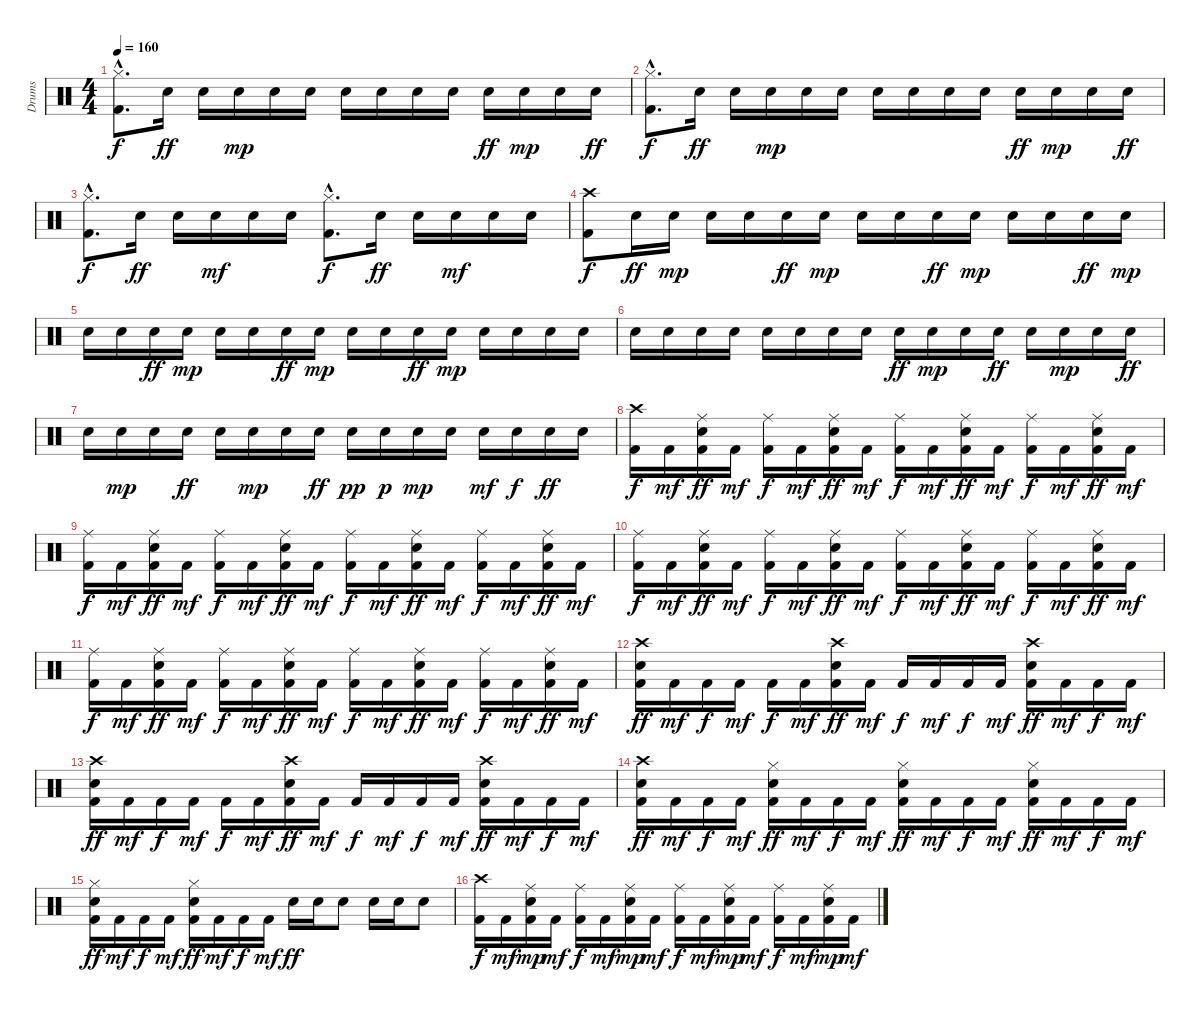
\track ("Drums" "Drums") {instrument percussion}
\staff {score}
\articulation defaults
\ts (4 4)
\tempo 160
\clef neutral
\ks c
("Hi-Hat (closed)"{hac} "Kick (hit) 2"{hac}).8{d dy f} "Snare (hit) 2".16{dy ff} "Snare (hit) 2".16 "Snare (hit) 2".16{dy mp} "Snare (hit) 2".16 "Snare (hit) 2".16 "Snare (hit) 2".16 "Snare (hit) 2".16 "Snare (hit) 2".16 "Snare (hit) 2".16 "Snare (hit) 2".16{dy ff} "Snare (hit) 2".16{dy mp} "Snare (hit) 2".16 "Snare (hit) 2".16{dy ff} |
("Hi-Hat (closed)"{hac} "Kick (hit) 2"{hac}).8{d dy f} "Snare (hit) 2".16{dy ff} "Snare (hit) 2".16 "Snare (hit) 2".16{dy mp} "Snare (hit) 2".16 "Snare (hit) 2".16 "Snare (hit) 2".16 "Snare (hit) 2".16 "Snare (hit) 2".16 "Snare (hit) 2".16 "Snare (hit) 2".16{dy ff} "Snare (hit) 2".16{dy mp} "Snare (hit) 2".16 "Snare (hit) 2".16{dy ff} |
("Hi-Hat (closed)"{hac} "Kick (hit) 2"{hac}).8{d dy f} "Snare (hit) 2".16{dy ff} "Snare (hit) 2".16 "Snare (hit) 2".16{dy mf} "Snare (hit) 2".16 "Snare (hit) 2".16 ("Hi-Hat (closed)"{hac} "Kick (hit) 2"{hac}).8{d dy f} "Snare (hit) 2".16{dy ff} "Snare (hit) 2".16 "Snare (hit) 2".16{dy mf} "Snare (hit) 2".16 "Snare (hit) 2".16 |
("Crash high (hit)" "Kick (hit) 2").8{dy f} "Snare (hit) 2".16{dy ff} "Snare (hit) 2".16{dy mp} "Snare (hit) 2".16 "Snare (hit) 2".16 "Snare (hit) 2".16{dy ff} "Snare (hit) 2".16{dy mp} "Snare (hit) 2".16 "Snare (hit) 2".16 "Snare (hit) 2".16{dy ff} "Snare (hit) 2".16{dy mp} "Snare (hit) 2".16 "Snare (hit) 2".16 "Snare (hit) 2".16{dy ff} "Snare (hit) 2".16{dy mp} |
"Snare (hit) 2".16 "Snare (hit) 2".16 "Snare (hit) 2".16{dy ff} "Snare (hit) 2".16{dy mp} "Snare (hit) 2".16 "Snare (hit) 2".16 "Snare (hit) 2".16{dy ff} "Snare (hit) 2".16{dy mp} "Snare (hit) 2".16 "Snare (hit) 2".16 "Snare (hit) 2".16{dy ff} "Snare (hit) 2".16{dy mp} "Snare (hit) 2".16 "Snare (hit) 2".16 "Snare (hit) 2".16 "Snare (hit) 2".16 |
"Snare (hit) 2".16 "Snare (hit) 2".16 "Snare (hit) 2".16 "Snare (hit) 2".16 "Snare (hit) 2".16 "Snare (hit) 2".16 "Snare (hit) 2".16 "Snare (hit) 2".16 "Snare (hit) 2".16{dy ff} "Snare (hit) 2".16{dy mp} "Snare (hit) 2".16 "Snare (hit) 2".16{dy ff} "Snare (hit) 2".16 "Snare (hit) 2".16{dy mp} "Snare (hit) 2".16 "Snare (hit) 2".16{dy ff} |
"Snare (hit) 2".16 "Snare (hit) 2".16{dy mp} "Snare (hit) 2".16 "Snare (hit) 2".16{dy ff} "Snare (hit) 2".16 "Snare (hit) 2".16{dy mp} "Snare (hit) 2".16 "Snare (hit) 2".16{dy ff} "Snare (hit) 2".16{dy pp} "Snare (hit) 2".16{dy p} "Snare (hit) 2".16{dy mp} "Snare (hit) 2".16 "Snare (hit) 2".16{dy mf} "Snare (hit) 2".16{dy f} "Snare (hit) 2".16{dy ff} "Snare (hit) 2".16 |
("Crash high (hit)" "Kick (hit) 2").16{dy f} "Kick (hit) 2".16{dy mf} ("Snare (hit) 2" "Ride (middle)" "Kick (hit) 2").16{dy ff} "Kick (hit) 2".16{dy mf} ("Ride (middle)" "Kick (hit) 2").16{dy f} "Kick (hit) 2".16{dy mf} ("Snare (hit) 2" "Ride (middle)" "Kick (hit) 2").16{dy ff} "Kick (hit) 2".16{dy mf} ("Ride (middle)" "Kick (hit) 2").16{dy f} "Kick (hit) 2".16{dy mf} ("Snare (hit) 2" "Ride (middle)" "Kick (hit) 2").16{dy ff} "Kick (hit) 2".16{dy mf} ("Ride (middle)" "Kick (hit) 2").16{dy f} "Kick (hit) 2".16{dy mf} ("Snare (hit) 2" "Ride (middle)" "Kick (hit) 2").16{dy ff} "Kick (hit) 2".16{dy mf} |
("Ride (middle)" "Kick (hit) 2").16{dy f} "Kick (hit) 2".16{dy mf} ("Snare (hit) 2" "Ride (middle)" "Kick (hit) 2").16{dy ff} "Kick (hit) 2".16{dy mf} ("Ride (middle)" "Kick (hit) 2").16{dy f} "Kick (hit) 2".16{dy mf} ("Snare (hit) 2" "Ride (middle)" "Kick (hit) 2").16{dy ff} "Kick (hit) 2".16{dy mf} ("Ride (middle)" "Kick (hit) 2").16{dy f} "Kick (hit) 2".16{dy mf} ("Snare (hit) 2" "Ride (middle)" "Kick (hit) 2").16{dy ff} "Kick (hit) 2".16{dy mf} ("Ride (middle)" "Kick (hit) 2").16{dy f} "Kick (hit) 2".16{dy mf} ("Snare (hit) 2" "Ride (middle)" "Kick (hit) 2").16{dy ff} "Kick (hit) 2".16{dy mf} |
("Ride (middle)" "Kick (hit) 2").16{dy f} "Kick (hit) 2".16{dy mf} ("Snare (hit) 2" "Ride (middle)" "Kick (hit) 2").16{dy ff} "Kick (hit) 2".16{dy mf} ("Ride (middle)" "Kick (hit) 2").16{dy f} "Kick (hit) 2".16{dy mf} ("Snare (hit) 2" "Ride (middle)" "Kick (hit) 2").16{dy ff} "Kick (hit) 2".16{dy mf} ("Ride (middle)" "Kick (hit) 2").16{dy f} "Kick (hit) 2".16{dy mf} ("Snare (hit) 2" "Ride (middle)" "Kick (hit) 2").16{dy ff} "Kick (hit) 2".16{dy mf} ("Ride (middle)" "Kick (hit) 2").16{dy f} "Kick (hit) 2".16{dy mf} ("Snare (hit) 2" "Ride (middle)" "Kick (hit) 2").16{dy ff} "Kick (hit) 2".16{dy mf} |
("Ride (middle)" "Kick (hit) 2").16{dy f} "Kick (hit) 2".16{dy mf} ("Snare (hit) 2" "Ride (middle)" "Kick (hit) 2").16{dy ff} "Kick (hit) 2".16{dy mf} ("Ride (middle)" "Kick (hit) 2").16{dy f} "Kick (hit) 2".16{dy mf} ("Snare (hit) 2" "Ride (middle)" "Kick (hit) 2").16{dy ff} "Kick (hit) 2".16{dy mf} ("Ride (middle)" "Kick (hit) 2").16{dy f} "Kick (hit) 2".16{dy mf} ("Snare (hit) 2" "Ride (middle)" "Kick (hit) 2").16{dy ff} "Kick (hit) 2".16{dy mf} ("Ride (middle)" "Kick (hit) 2").16{dy f} "Kick (hit) 2".16{dy mf} ("Snare (hit) 2" "Ride (middle)" "Kick (hit) 2").16{dy ff} "Kick (hit) 2".16{dy mf} |
("Crash high (hit)" "Snare (hit) 2" "Kick (hit) 2").16{dy ff} "Kick (hit) 2".16{dy mf} "Kick (hit) 2".16{dy f} "Kick (hit) 2".16{dy mf} "Kick (hit) 2".16{dy f} "Kick (hit) 2".16{dy mf} ("Snare (hit) 2" "Crash high (hit)" "Kick (hit) 2").16{dy ff} "Kick (hit) 2".16{dy mf} "Kick (hit) 2".16{dy f} "Kick (hit) 2".16{dy mf} "Kick (hit) 2".16{dy f} "Kick (hit) 2".16{dy mf} ("Snare (hit) 2" "Crash high (hit)" "Kick (hit) 2").16{dy ff} "Kick (hit) 2".16{dy mf} "Kick (hit) 2".16{dy f} "Kick (hit) 2".16{dy mf} |
("Crash high (hit)" "Snare (hit) 2" "Kick (hit) 2").16{dy ff} "Kick (hit) 2".16{dy mf} "Kick (hit) 2".16{dy f} "Kick (hit) 2".16{dy mf} "Kick (hit) 2".16{dy f} "Kick (hit) 2".16{dy mf} ("Snare (hit) 2" "Crash high (hit)" "Kick (hit) 2").16{dy ff} "Kick (hit) 2".16{dy mf} "Kick (hit) 2".16{dy f} "Kick (hit) 2".16{dy mf} "Kick (hit) 2".16{dy f} "Kick (hit) 2".16{dy mf} ("Snare (hit) 2" "Crash high (hit)" "Kick (hit) 2").16{dy ff} "Kick (hit) 2".16{dy mf} "Kick (hit) 2".16{dy f} "Kick (hit) 2".16{dy mf} |
("Crash high (hit)" "Snare (hit) 2" "Kick (hit) 2").16{dy ff} "Kick (hit) 2".16{dy mf} "Kick (hit) 2".16{dy f} "Kick (hit) 2".16{dy mf} ("Hi-Hat (closed)" "Snare (hit) 2" "Kick (hit) 2").16{dy ff} "Kick (hit) 2".16{dy mf} "Kick (hit) 2".16{dy f} "Kick (hit) 2".16{dy mf} ("Hi-Hat (closed)" "Snare (hit) 2" "Kick (hit) 2").16{dy ff} "Kick (hit) 2".16{dy mf} "Kick (hit) 2".16{dy f} "Kick (hit) 2".16{dy mf} ("Hi-Hat (closed)" "Snare (hit) 2" "Kick (hit) 2").16{dy ff} "Kick (hit) 2".16{dy mf} "Kick (hit) 2".16{dy f} "Kick (hit) 2".16{dy mf} |
("Hi-Hat (closed)" "Snare (hit) 2" "Kick (hit) 2").16{dy ff} "Kick (hit) 2".16{dy mf} "Kick (hit) 2".16{dy f} "Kick (hit) 2".16{dy mf} ("Hi-Hat (closed)" "Snare (hit) 2" "Kick (hit) 2").16{dy ff} "Kick (hit) 2".16{dy mf} "Kick (hit) 2".16{dy f} "Kick (hit) 2".16{dy mf} "Snare (hit) 2".16{dy ff} "Snare (hit) 2".16 "Snare (hit) 2".8 "Snare (hit) 2".16 "Snare (hit) 2".16 "Snare (hit) 2".8 |
("Crash high (hit)" "Kick (hit) 2").16{dy f} "Kick (hit) 2".16{dy mf} ("Snare (hit) 2" "Ride (middle)" "Kick (hit) 2").16{dy mp} "Kick (hit) 2".16{dy mf} ("Ride (middle)" "Kick (hit) 2").16{dy f} "Kick (hit) 2".16{dy mf} ("Snare (hit) 2" "Ride (middle)" "Kick (hit) 2").16{dy mp} "Kick (hit) 2".16{dy mf} ("Ride (middle)" "Kick (hit) 2").16{dy f} "Kick (hit) 2".16{dy mf} ("Snare (hit) 2" "Ride (middle)" "Kick (hit) 2").16{dy mp} "Kick (hit) 2".16{dy mf} ("Ride (middle)" "Kick (hit) 2").16{dy f} "Kick (hit) 2".16{dy mf} ("Snare (hit) 2" "Ride (middle)" "Kick (hit) 2").16{dy mp} "Kick (hit) 2".16{dy mf}
